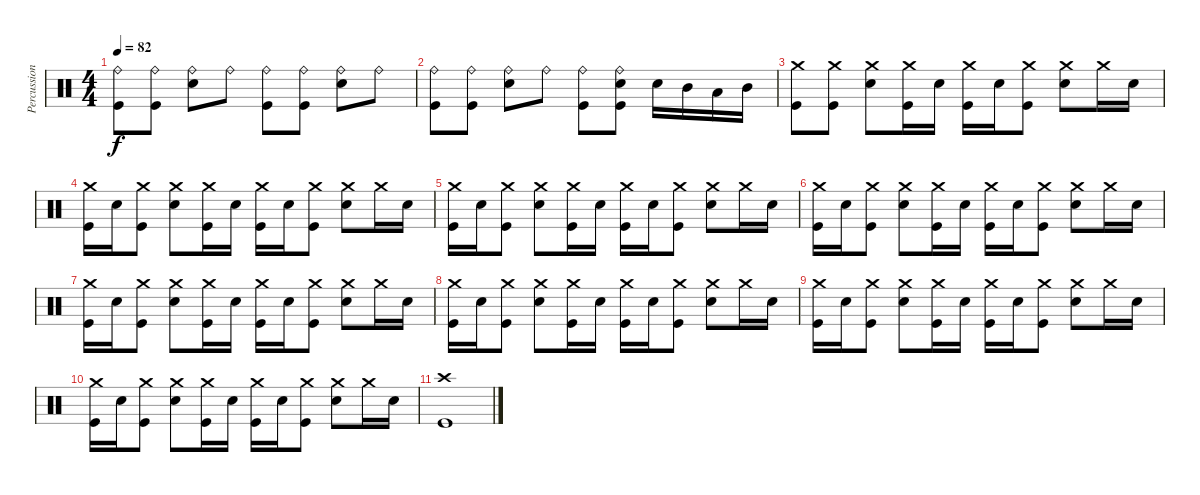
\track ("Percussioni" "Percussion") {instrument percussion}
\staff {score}
\articulation defaults
\ts (4 4)
\tempo 82
\clef neutral
\ks c
("Ride (bell)" "Kick (hit)").8{dy f} ("Ride (bell)" "Kick (hit)").8 ("Ride (bell)" "Snare (hit) 2").8 "Ride (bell)".8 ("Ride (bell)" "Kick (hit)").8 ("Ride (bell)" "Kick (hit)").8 ("Ride (bell)" "Snare (hit) 2").8 "Ride (bell)".8 |
("Ride (bell)" "Kick (hit)").8 ("Ride (bell)" "Kick (hit)").8 ("Ride (bell)" "Snare (hit) 2").8 "Ride (bell)".8 ("Ride (bell)" "Kick (hit)").8 ("Ride (bell)" "Snare (hit) 2" "Kick (hit)").8 "Snare (hit) 2".16 "Mid Tom (hit)".16 "Low Tom (hit)".16 "Mid Tom (hit)".16 |
("Crash medium (hit)" "Kick (hit)").8 ("Crash medium (hit)" "Kick (hit)").8 ("Crash medium (hit)" "Snare (hit) 2").8 ("Crash medium (hit)" "Kick (hit)").16 "Snare (hit) 2".16 ("Crash medium (hit)" "Kick (hit)").16 "Snare (hit) 2".16 ("Crash medium (hit)" "Kick (hit)").8 ("Crash medium (hit)" "Snare (hit) 2").8 "Crash medium (hit)".16 "Snare (hit) 2".16 |
("Crash medium (hit)" "Kick (hit)").16 "Snare (hit) 2".16 ("Crash medium (hit)" "Kick (hit)").8 ("Crash medium (hit)" "Snare (hit) 2").8 ("Crash medium (hit)" "Kick (hit)").16 "Snare (hit) 2".16 ("Crash medium (hit)" "Kick (hit)").16 "Snare (hit) 2".16 ("Crash medium (hit)" "Kick (hit)").8 ("Crash medium (hit)" "Snare (hit) 2").8 "Crash medium (hit)".16 "Snare (hit) 2".16 |
("Crash medium (hit)" "Kick (hit)").16 "Snare (hit) 2".16 ("Crash medium (hit)" "Kick (hit)").8 ("Crash medium (hit)" "Snare (hit) 2").8 ("Crash medium (hit)" "Kick (hit)").16 "Snare (hit) 2".16 ("Crash medium (hit)" "Kick (hit)").16 "Snare (hit) 2".16 ("Crash medium (hit)" "Kick (hit)").8 ("Crash medium (hit)" "Snare (hit) 2").8 "Crash medium (hit)".16 "Snare (hit) 2".16 |
("Crash medium (hit)" "Kick (hit)").16 "Snare (hit) 2".16 ("Crash medium (hit)" "Kick (hit)").8 ("Crash medium (hit)" "Snare (hit) 2").8 ("Crash medium (hit)" "Kick (hit)").16 "Snare (hit) 2".16 ("Crash medium (hit)" "Kick (hit)").16 "Snare (hit) 2".16 ("Crash medium (hit)" "Kick (hit)").8 ("Crash medium (hit)" "Snare (hit) 2").8 "Crash medium (hit)".16 "Snare (hit) 2".16 |
("Crash medium (hit)" "Kick (hit)").16 "Snare (hit) 2".16 ("Crash medium (hit)" "Kick (hit)").8 ("Crash medium (hit)" "Snare (hit) 2").8 ("Crash medium (hit)" "Kick (hit)").16 "Snare (hit) 2".16 ("Crash medium (hit)" "Kick (hit)").16 "Snare (hit) 2".16 ("Crash medium (hit)" "Kick (hit)").8 ("Crash medium (hit)" "Snare (hit) 2").8 "Crash medium (hit)".16 "Snare (hit) 2".16 |
("Crash medium (hit)" "Kick (hit)").16 "Snare (hit) 2".16 ("Crash medium (hit)" "Kick (hit)").8 ("Crash medium (hit)" "Snare (hit) 2").8 ("Crash medium (hit)" "Kick (hit)").16 "Snare (hit) 2".16 ("Crash medium (hit)" "Kick (hit)").16 "Snare (hit) 2".16 ("Crash medium (hit)" "Kick (hit)").8 ("Crash medium (hit)" "Snare (hit) 2").8 "Crash medium (hit)".16 "Snare (hit) 2".16 |
("Crash medium (hit)" "Kick (hit)").16 "Snare (hit) 2".16 ("Crash medium (hit)" "Kick (hit)").8 ("Crash medium (hit)" "Snare (hit) 2").8 ("Crash medium (hit)" "Kick (hit)").16 "Snare (hit) 2".16 ("Crash medium (hit)" "Kick (hit)").16 "Snare (hit) 2".16 ("Crash medium (hit)" "Kick (hit)").8 ("Crash medium (hit)" "Snare (hit) 2").8 "Crash medium (hit)".16 "Snare (hit) 2".16 |
("Crash medium (hit)" "Kick (hit)").16 "Snare (hit) 2".16 ("Crash medium (hit)" "Kick (hit)").8 ("Crash medium (hit)" "Snare (hit) 2").8 ("Crash medium (hit)" "Kick (hit)").16 "Snare (hit) 2".16 ("Crash medium (hit)" "Kick (hit)").16 "Snare (hit) 2".16 ("Crash medium (hit)" "Kick (hit)").8 ("Crash medium (hit)" "Snare (hit) 2").8 "Crash medium (hit)".16 "Snare (hit) 2".16 |
("Crash high (hit)" "Kick (hit)").1
